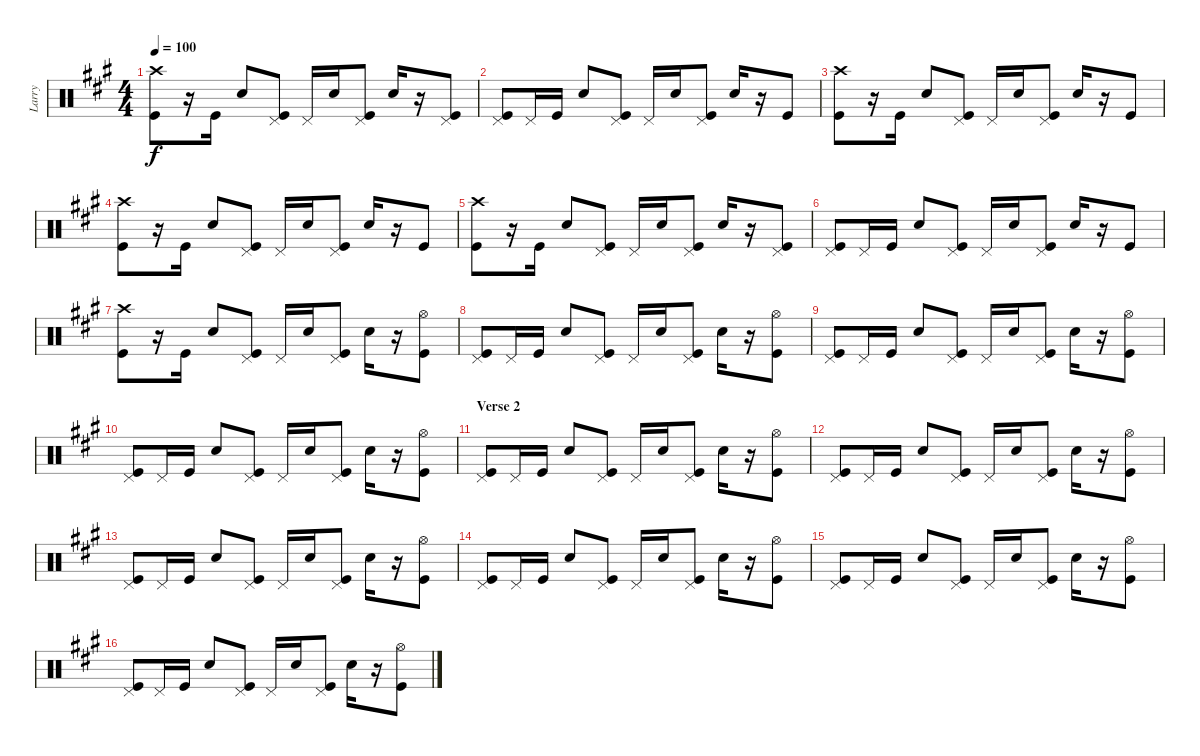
\track ("Larry" "Larry") {instrument percussion}
\staff {score}
\articulation defaults
\ts (4 4)
\tempo 100
\clef neutral
\ks f#minor
("Crash high (hit)" "Kick (hit)").8{dy f} r.16 "Kick (hit)".16 "Snare (hit) 2".8 ("Pedal Hi-Hat (hit)" "Kick (hit)").8 "Pedal Hi-Hat (hit)".16 "Snare (hit) 2".16 ("Pedal Hi-Hat (hit)" "Kick (hit)").8 "Snare (hit) 2".16 r.16 ("Pedal Hi-Hat (hit)" "Kick (hit)").8 |
("Pedal Hi-Hat (hit)" "Kick (hit)").8 "Pedal Hi-Hat (hit)".16 "Kick (hit)".16 "Snare (hit) 2".8 ("Pedal Hi-Hat (hit)" "Kick (hit)").8 "Pedal Hi-Hat (hit)".16 "Snare (hit) 2".16 ("Pedal Hi-Hat (hit)" "Kick (hit)").8 "Snare (hit) 2".16 r.16 "Kick (hit)".8 |
("Crash high (hit)" "Kick (hit)").8 r.16 "Kick (hit)".16 "Snare (hit) 2".8 ("Pedal Hi-Hat (hit)" "Kick (hit)").8 "Pedal Hi-Hat (hit)".16 "Snare (hit) 2".16 ("Pedal Hi-Hat (hit)" "Kick (hit)").8 "Snare (hit) 2".16 r.16 "Kick (hit)".8 |
("Crash high (hit)" "Kick (hit)").8 r.16 "Kick (hit)".16 "Snare (hit) 2".8 ("Pedal Hi-Hat (hit)" "Kick (hit)").8 "Pedal Hi-Hat (hit)".16 "Snare (hit) 2".16 ("Pedal Hi-Hat (hit)" "Kick (hit)").8 "Snare (hit) 2".16 r.16 "Kick (hit)".8 |
("Crash high (hit)" "Kick (hit)").8 r.16 "Kick (hit)".16 "Snare (hit) 2".8 ("Pedal Hi-Hat (hit)" "Kick (hit)").8 "Pedal Hi-Hat (hit)".16 "Snare (hit) 2".16 ("Pedal Hi-Hat (hit)" "Kick (hit)").8 "Snare (hit) 2".16 r.16 ("Pedal Hi-Hat (hit)" "Kick (hit)").8 |
("Pedal Hi-Hat (hit)" "Kick (hit)").8 "Pedal Hi-Hat (hit)".16 "Kick (hit)".16 "Snare (hit) 2".8 ("Pedal Hi-Hat (hit)" "Kick (hit)").8 "Pedal Hi-Hat (hit)".16 "Snare (hit) 2".16 ("Pedal Hi-Hat (hit)" "Kick (hit)").8 "Snare (hit) 2".16 r.16 "Kick (hit)".8 |
("Crash high (hit)" "Kick (hit)").8 r.16 "Kick (hit)".16 "Snare (hit) 2".8 ("Pedal Hi-Hat (hit)" "Kick (hit)").8 "Pedal Hi-Hat (hit)".16 "Snare (hit) 2".16 ("Pedal Hi-Hat (hit)" "Kick (hit)").8 "Snare (hit) 2".16 r.16 ("Hi-Hat (open)" "Kick (hit)").8 |
("Pedal Hi-Hat (hit)" "Kick (hit)").8 "Pedal Hi-Hat (hit)".16 "Kick (hit)".16 "Snare (hit) 2".8 ("Pedal Hi-Hat (hit)" "Kick (hit)").8 "Pedal Hi-Hat (hit)".16 "Snare (hit) 2".16 ("Pedal Hi-Hat (hit)" "Kick (hit)").8 "Snare (hit) 2".16 r.16 ("Hi-Hat (open)" "Kick (hit)").8 |
("Pedal Hi-Hat (hit)" "Kick (hit)").8 "Pedal Hi-Hat (hit)".16 "Kick (hit)".16 "Snare (hit) 2".8 ("Pedal Hi-Hat (hit)" "Kick (hit)").8 "Pedal Hi-Hat (hit)".16 "Snare (hit) 2".16 ("Pedal Hi-Hat (hit)" "Kick (hit)").8 "Snare (hit) 2".16 r.16 ("Hi-Hat (open)" "Kick (hit)").8 |
("Pedal Hi-Hat (hit)" "Kick (hit)").8 "Pedal Hi-Hat (hit)".16 "Kick (hit)".16 "Snare (hit) 2".8 ("Pedal Hi-Hat (hit)" "Kick (hit)").8 "Pedal Hi-Hat (hit)".16 "Snare (hit) 2".16 ("Pedal Hi-Hat (hit)" "Kick (hit)").8 "Snare (hit) 2".16 r.16 ("Hi-Hat (open)" "Kick (hit)").8 |
\section ("" "Verse 2")
("Pedal Hi-Hat (hit)" "Kick (hit)").8 "Pedal Hi-Hat (hit)".16 "Kick (hit)".16 "Snare (hit) 2".8 ("Pedal Hi-Hat (hit)" "Kick (hit)").8 "Pedal Hi-Hat (hit)".16 "Snare (hit) 2".16 ("Pedal Hi-Hat (hit)" "Kick (hit)").8 "Snare (hit) 2".16 r.16 ("Hi-Hat (open)" "Kick (hit)").8 |
("Pedal Hi-Hat (hit)" "Kick (hit)").8 "Pedal Hi-Hat (hit)".16 "Kick (hit)".16 "Snare (hit) 2".8 ("Pedal Hi-Hat (hit)" "Kick (hit)").8 "Pedal Hi-Hat (hit)".16 "Snare (hit) 2".16 ("Pedal Hi-Hat (hit)" "Kick (hit)").8 "Snare (hit) 2".16 r.16 ("Hi-Hat (open)" "Kick (hit)").8 |
("Pedal Hi-Hat (hit)" "Kick (hit)").8 "Pedal Hi-Hat (hit)".16 "Kick (hit)".16 "Snare (hit) 2".8 ("Pedal Hi-Hat (hit)" "Kick (hit)").8 "Pedal Hi-Hat (hit)".16 "Snare (hit) 2".16 ("Pedal Hi-Hat (hit)" "Kick (hit)").8 "Snare (hit) 2".16 r.16 ("Hi-Hat (open)" "Kick (hit)").8 |
("Pedal Hi-Hat (hit)" "Kick (hit)").8 "Pedal Hi-Hat (hit)".16 "Kick (hit)".16 "Snare (hit) 2".8 ("Pedal Hi-Hat (hit)" "Kick (hit)").8 "Pedal Hi-Hat (hit)".16 "Snare (hit) 2".16 ("Pedal Hi-Hat (hit)" "Kick (hit)").8 "Snare (hit) 2".16 r.16 ("Hi-Hat (open)" "Kick (hit)").8 |
("Pedal Hi-Hat (hit)" "Kick (hit)").8 "Pedal Hi-Hat (hit)".16 "Kick (hit)".16 "Snare (hit) 2".8 ("Pedal Hi-Hat (hit)" "Kick (hit)").8 "Pedal Hi-Hat (hit)".16 "Snare (hit) 2".16 ("Pedal Hi-Hat (hit)" "Kick (hit)").8 "Snare (hit) 2".16 r.16 ("Hi-Hat (open)" "Kick (hit)").8 |
("Pedal Hi-Hat (hit)" "Kick (hit)").8 "Pedal Hi-Hat (hit)".16 "Kick (hit)".16 "Snare (hit) 2".8 ("Pedal Hi-Hat (hit)" "Kick (hit)").8 "Pedal Hi-Hat (hit)".16 "Snare (hit) 2".16 ("Pedal Hi-Hat (hit)" "Kick (hit)").8 "Snare (hit) 2".16 r.16 ("Hi-Hat (open)" "Kick (hit)").8
